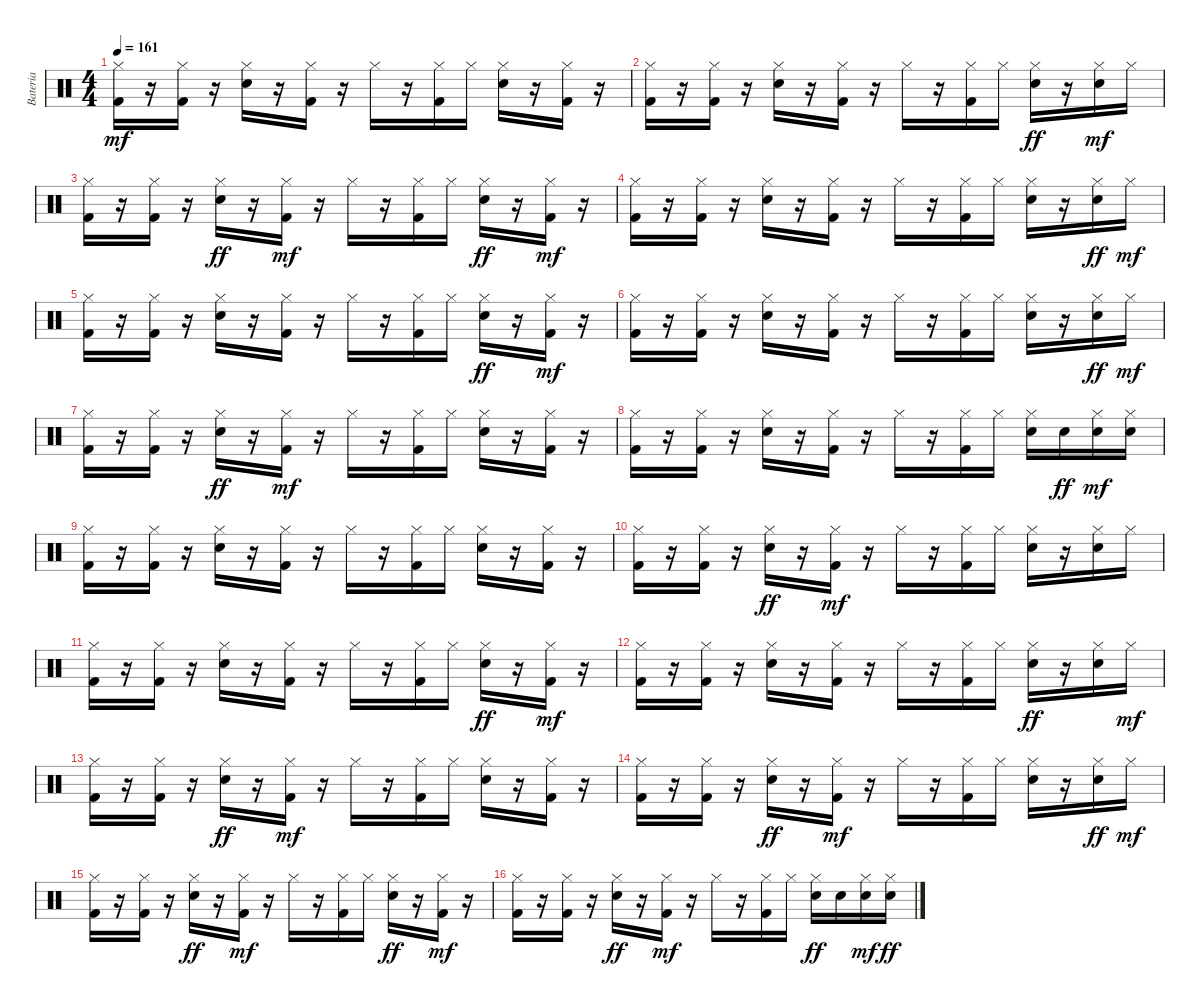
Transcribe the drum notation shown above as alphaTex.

\track ("Bateria" "Bateria") {instrument percussion}
\staff {score}
\articulation defaults
\ts (4 4)
\tempo 161
\clef neutral
\ks c
("Hi-Hat (closed)" "Kick (hit) 2").16{dy mf} r.16 ("Kick (hit) 2" "Hi-Hat (closed)").16 r.16 ("Electric Snare (hit)" "Hi-Hat (closed)").16 r.16 ("Hi-Hat (closed)" "Kick (hit) 2").16 r.16 "Hi-Hat (closed)".16 r.16 ("Hi-Hat (closed)" "Kick (hit) 2").16 "Hi-Hat (closed)".16 ("Electric Snare (hit)" "Hi-Hat (closed)").16 r.16 ("Hi-Hat (closed)" "Kick (hit) 2").16 r.16 |
("Hi-Hat (closed)" "Kick (hit) 2").16 r.16 ("Hi-Hat (closed)" "Kick (hit) 2").16 r.16 ("Electric Snare (hit)" "Hi-Hat (closed)").16 r.16 ("Kick (hit) 2" "Hi-Hat (closed)").16 r.16 "Hi-Hat (closed)".16 r.16 ("Hi-Hat (closed)" "Kick (hit) 2").16 "Hi-Hat (closed)".16 ("Hi-Hat (closed)" "Electric Snare (hit)").16{dy ff} r.16 ("Electric Snare (hit)" "Hi-Hat (closed)").16{dy mf} "Hi-Hat (closed)".16 |
("Kick (hit) 2" "Hi-Hat (closed)").16 r.16 ("Hi-Hat (closed)" "Kick (hit) 2").16 r.16 ("Hi-Hat (closed)" "Electric Snare (hit)").16{dy ff} r.16 ("Hi-Hat (closed)" "Kick (hit) 2").16{dy mf} r.16 "Hi-Hat (closed)".16 r.16 ("Kick (hit) 2" "Hi-Hat (closed)").16 "Hi-Hat (closed)".16 ("Hi-Hat (closed)" "Electric Snare (hit)").16{dy ff} r.16 ("Kick (hit) 2" "Hi-Hat (closed)").16{dy mf} r.16 |
("Hi-Hat (closed)" "Kick (hit) 2").16 r.16 ("Hi-Hat (closed)" "Kick (hit) 2").16 r.16 ("Electric Snare (hit)" "Hi-Hat (closed)").16 r.16 ("Kick (hit) 2" "Hi-Hat (closed)").16 r.16 "Hi-Hat (closed)".16 r.16 ("Kick (hit) 2" "Hi-Hat (closed)").16 "Hi-Hat (closed)".16 ("Electric Snare (hit)" "Hi-Hat (closed)").16 r.16 ("Hi-Hat (closed)" "Electric Snare (hit)").16{dy ff} "Hi-Hat (closed)".16{dy mf} |
("Hi-Hat (closed)" "Kick (hit) 2").16 r.16 ("Kick (hit) 2" "Hi-Hat (closed)").16 r.16 ("Electric Snare (hit)" "Hi-Hat (closed)").16 r.16 ("Kick (hit) 2" "Hi-Hat (closed)").16 r.16 "Hi-Hat (closed)".16 r.16 ("Hi-Hat (closed)" "Kick (hit) 2").16 "Hi-Hat (closed)".16 ("Hi-Hat (closed)" "Electric Snare (hit)").16{dy ff} r.16 ("Kick (hit) 2" "Hi-Hat (closed)").16{dy mf} r.16 |
("Kick (hit) 2" "Hi-Hat (closed)").16 r.16 ("Hi-Hat (closed)" "Kick (hit) 2").16 r.16 ("Electric Snare (hit)" "Hi-Hat (closed)").16 r.16 ("Hi-Hat (closed)" "Kick (hit) 2").16 r.16 "Hi-Hat (closed)".16 r.16 ("Kick (hit) 2" "Hi-Hat (closed)").16 "Hi-Hat (closed)".16 ("Electric Snare (hit)" "Hi-Hat (closed)").16 r.16 ("Hi-Hat (closed)" "Electric Snare (hit)").16{dy ff} "Hi-Hat (closed)".16{dy mf} |
("Hi-Hat (closed)" "Kick (hit) 2").16 r.16 ("Hi-Hat (closed)" "Kick (hit) 2").16 r.16 ("Hi-Hat (closed)" "Electric Snare (hit)").16{dy ff} r.16 ("Hi-Hat (closed)" "Kick (hit) 2").16{dy mf} r.16 "Hi-Hat (closed)".16 r.16 ("Hi-Hat (closed)" "Kick (hit) 2").16 "Hi-Hat (closed)".16 ("Electric Snare (hit)" "Hi-Hat (closed)").16 r.16 ("Hi-Hat (closed)" "Kick (hit) 2").16 r.16 |
("Hi-Hat (closed)" "Kick (hit) 2").16 r.16 ("Kick (hit) 2" "Hi-Hat (closed)").16 r.16 ("Electric Snare (hit)" "Hi-Hat (closed)").16 r.16 ("Hi-Hat (closed)" "Kick (hit) 2").16 r.16 "Hi-Hat (closed)".16 r.16 ("Hi-Hat (closed)" "Kick (hit) 2").16 "Hi-Hat (closed)".16 ("Electric Snare (hit)" "Hi-Hat (closed)").16 "Electric Snare (hit)".16{dy ff} ("Electric Snare (hit)" "Hi-Hat (closed)").16{dy mf} ("Electric Snare (hit)" "Hi-Hat (closed)").16 |
("Hi-Hat (closed)" "Kick (hit) 2").16 r.16 ("Kick (hit) 2" "Hi-Hat (closed)").16 r.16 ("Electric Snare (hit)" "Hi-Hat (closed)").16 r.16 ("Kick (hit) 2" "Hi-Hat (closed)").16 r.16 "Hi-Hat (closed)".16 r.16 ("Hi-Hat (closed)" "Kick (hit) 2").16 "Hi-Hat (closed)".16 ("Electric Snare (hit)" "Hi-Hat (closed)").16 r.16 ("Kick (hit) 2" "Hi-Hat (closed)").16 r.16 |
("Kick (hit) 2" "Hi-Hat (closed)").16 r.16 ("Hi-Hat (closed)" "Kick (hit) 2").16 r.16 ("Hi-Hat (closed)" "Electric Snare (hit)").16{dy ff} r.16 ("Kick (hit) 2" "Hi-Hat (closed)").16{dy mf} r.16 "Hi-Hat (closed)".16 r.16 ("Hi-Hat (closed)" "Kick (hit) 2").16 "Hi-Hat (closed)".16 ("Electric Snare (hit)" "Hi-Hat (closed)").16 r.16 ("Electric Snare (hit)" "Hi-Hat (closed)").16 "Hi-Hat (closed)".16 |
("Hi-Hat (closed)" "Kick (hit) 2").16 r.16 ("Hi-Hat (closed)" "Kick (hit) 2").16 r.16 ("Electric Snare (hit)" "Hi-Hat (closed)").16 r.16 ("Kick (hit) 2" "Hi-Hat (closed)").16 r.16 "Hi-Hat (closed)".16 r.16 ("Kick (hit) 2" "Hi-Hat (closed)").16 "Hi-Hat (closed)".16 ("Hi-Hat (closed)" "Electric Snare (hit)").16{dy ff} r.16 ("Kick (hit) 2" "Hi-Hat (closed)").16{dy mf} r.16 |
("Kick (hit) 2" "Hi-Hat (closed)").16 r.16 ("Kick (hit) 2" "Hi-Hat (closed)").16 r.16 ("Electric Snare (hit)" "Hi-Hat (closed)").16 r.16 ("Kick (hit) 2" "Hi-Hat (closed)").16 r.16 "Hi-Hat (closed)".16 r.16 ("Kick (hit) 2" "Hi-Hat (closed)").16 "Hi-Hat (closed)".16 ("Hi-Hat (closed)" "Electric Snare (hit)").16{dy ff} r.16 ("Hi-Hat (closed)" "Electric Snare (hit)").16 "Hi-Hat (closed)".16{dy mf} |
("Hi-Hat (closed)" "Kick (hit) 2").16 r.16 ("Kick (hit) 2" "Hi-Hat (closed)").16 r.16 ("Hi-Hat (closed)" "Electric Snare (hit)").16{dy ff} r.16 ("Hi-Hat (closed)" "Kick (hit) 2").16{dy mf} r.16 "Hi-Hat (closed)".16 r.16 ("Kick (hit) 2" "Hi-Hat (closed)").16 "Hi-Hat (closed)".16 ("Electric Snare (hit)" "Hi-Hat (closed)").16 r.16 ("Hi-Hat (closed)" "Kick (hit) 2").16 r.16 |
("Kick (hit) 2" "Hi-Hat (closed)").16 r.16 ("Hi-Hat (closed)" "Kick (hit) 2").16 r.16 ("Hi-Hat (closed)" "Electric Snare (hit)").16{dy ff} r.16 ("Hi-Hat (closed)" "Kick (hit) 2").16{dy mf} r.16 "Hi-Hat (closed)".16 r.16 ("Hi-Hat (closed)" "Kick (hit) 2").16 "Hi-Hat (closed)".16 ("Electric Snare (hit)" "Hi-Hat (closed)").16 r.16 ("Hi-Hat (closed)" "Electric Snare (hit)").16{dy ff} "Hi-Hat (closed)".16{dy mf} |
("Kick (hit) 2" "Hi-Hat (closed)").16 r.16 ("Hi-Hat (closed)" "Kick (hit) 2").16 r.16 ("Hi-Hat (closed)" "Electric Snare (hit)").16{dy ff} r.16 ("Kick (hit) 2" "Hi-Hat (closed)").16{dy mf} r.16 "Hi-Hat (closed)".16 r.16 ("Kick (hit) 2" "Hi-Hat (closed)").16 "Hi-Hat (closed)".16 ("Hi-Hat (closed)" "Electric Snare (hit)").16{dy ff} r.16 ("Hi-Hat (closed)" "Kick (hit) 2").16{dy mf} r.16 |
("Hi-Hat (closed)" "Kick (hit) 2").16 r.16 ("Hi-Hat (closed)" "Kick (hit) 2").16 r.16 ("Hi-Hat (closed)" "Electric Snare (hit)").16{dy ff} r.16 ("Kick (hit) 2" "Hi-Hat (closed)").16{dy mf} r.16 "Hi-Hat (closed)".16 r.16 ("Hi-Hat (closed)" "Kick (hit) 2").16 "Hi-Hat (closed)".16 ("Hi-Hat (closed)" "Electric Snare (hit)").16{dy ff} "Electric Snare (hit)".16 ("Electric Snare (hit)" "Hi-Hat (closed)").16{dy mf} ("Hi-Hat (closed)" "Electric Snare (hit)").16{dy ff}
